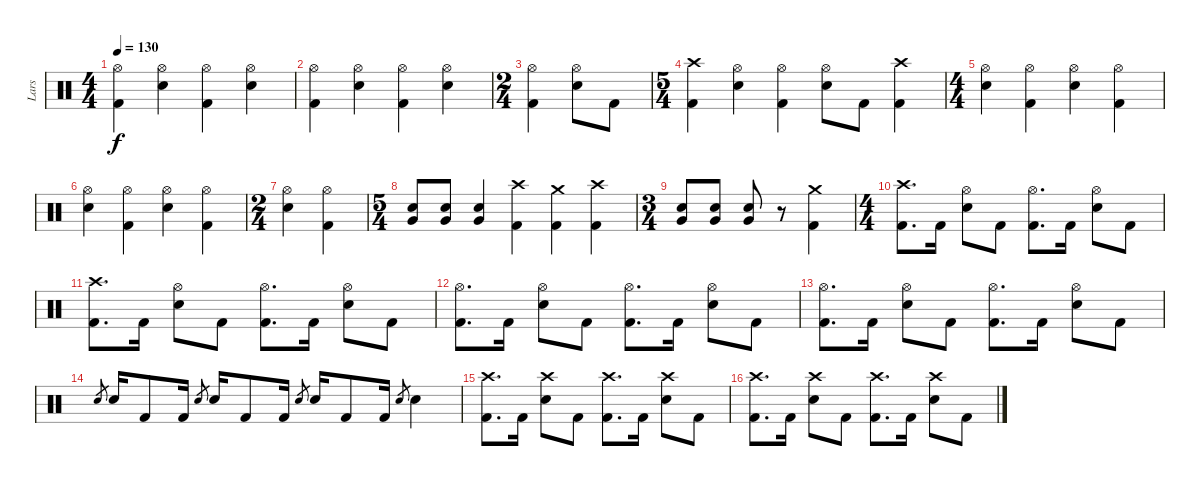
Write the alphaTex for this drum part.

\track ("Lars" "Lars") {instrument percussion}
\staff {score}
\articulation defaults
\ts (4 4)
\tempo 130
\clef neutral
\ks c
("Kick (hit) 2" "Hi-Hat (open)").4{dy f} ("Electric Snare (hit)" "Hi-Hat (open)").4 ("Kick (hit) 2" "Hi-Hat (open)").4 ("Electric Snare (hit)" "Hi-Hat (open)").4 |
("Kick (hit) 2" "Hi-Hat (open)").4 ("Electric Snare (hit)" "Hi-Hat (open)").4 ("Kick (hit) 2" "Hi-Hat (open)").4 ("Electric Snare (hit)" "Hi-Hat (open)").4 |
\ts (2 4)
("Kick (hit) 2" "Hi-Hat (open)").4 ("Electric Snare (hit)" "Hi-Hat (open)").8 "Kick (hit) 2".8 |
\ts (5 4)
("Kick (hit) 2" "Crash high (hit)").4 ("Electric Snare (hit)" "Hi-Hat (open)").4 ("Kick (hit) 2" "Hi-Hat (open)").4 ("Electric Snare (hit)" "Hi-Hat (open)").8 "Kick (hit) 2".8 ("Kick (hit) 2" "Crash high (hit)").4 |
\ts (4 4)
("Electric Snare (hit)" "Hi-Hat (open)").4 ("Kick (hit) 2" "Hi-Hat (open)").4 ("Electric Snare (hit)" "Hi-Hat (open)").4 ("Kick (hit) 2" "Hi-Hat (open)").4 |
("Electric Snare (hit)" "Hi-Hat (open)").4 ("Kick (hit) 2" "Hi-Hat (open)").4 ("Electric Snare (hit)" "Hi-Hat (open)").4 ("Kick (hit) 2" "Hi-Hat (open)").4 |
\ts (2 4)
("Electric Snare (hit)" "Hi-Hat (open)").4 ("Kick (hit) 2" "Hi-Hat (open)").4 |
\ts (5 4)
\section ("" "")
("Electric Snare (hit)" "Very Low Tom (hit)").8{bu 120} ("Electric Snare (hit)" "Very Low Tom (hit)").8{bu 120} ("Electric Snare (hit)" "Very Low Tom (hit)").4 ("Kick (hit) 2" "Crash high (hit)").4 ("Kick (hit) 2" "Crash medium (hit)").4 ("Kick (hit) 2" "Crash high (hit)").4 |
\ts (3 4)
("Electric Snare (hit)" "Very Low Tom (hit)").8{bu 120} ("Electric Snare (hit)" "Very Low Tom (hit)").8{bu 120} ("Electric Snare (hit)" "Very Low Tom (hit)").8{bu 120} r.8 ("Kick (hit) 2" "Crash medium (hit)").4 |
\ts (4 4)
\section ("" "")
("Kick (hit) 2" "Crash high (hit)").8{d} "Kick (hit) 2".16 ("Electric Snare (hit)" "Hi-Hat (open)").8 "Kick (hit) 2".8 ("Kick (hit) 2" "Hi-Hat (open)").8{d} "Kick (hit) 2".16 ("Electric Snare (hit)" "Hi-Hat (open)").8 "Kick (hit) 2".8 |
\section ("" "")
("Kick (hit) 2" "Crash high (hit)").8{d} "Kick (hit) 2".16 ("Electric Snare (hit)" "Hi-Hat (open)").8 "Kick (hit) 2".8 ("Kick (hit) 2" "Hi-Hat (open)").8{d} "Kick (hit) 2".16 ("Electric Snare (hit)" "Hi-Hat (open)").8 "Kick (hit) 2".8 |
("Kick (hit) 2" "Hi-Hat (open)").8{d} "Kick (hit) 2".16 ("Electric Snare (hit)" "Hi-Hat (open)").8 "Kick (hit) 2".8 ("Kick (hit) 2" "Hi-Hat (open)").8{d} "Kick (hit) 2".16 ("Electric Snare (hit)" "Hi-Hat (open)").8 "Kick (hit) 2".8 |
("Kick (hit) 2" "Hi-Hat (open)").8{d} "Kick (hit) 2".16 ("Electric Snare (hit)" "Hi-Hat (open)").8 "Kick (hit) 2".8 ("Kick (hit) 2" "Hi-Hat (open)").8{d} "Kick (hit) 2".16 ("Electric Snare (hit)" "Hi-Hat (open)").8 "Kick (hit) 2".8 |
"Electric Snare (hit)".8{gr} "Electric Snare (hit)".16 "Kick (hit) 2".8 "Kick (hit) 2".16 "Electric Snare (hit)".8{gr} "Electric Snare (hit)".16 "Kick (hit) 2".8 "Kick (hit) 2".16 "Electric Snare (hit)".8{gr} "Electric Snare (hit)".16 "Kick (hit) 2".8 "Kick (hit) 2".16 "Electric Snare (hit)".8{gr} "Electric Snare (hit)".4 |
("Kick (hit) 2" "Crash high (hit)").8{d} "Kick (hit) 2".16 ("Electric Snare (hit)" "Crash high (hit)").8 "Kick (hit) 2".8 ("Kick (hit) 2" "Crash high (hit)").8{d} "Kick (hit) 2".16 ("Electric Snare (hit)" "Crash high (hit)").8 "Kick (hit) 2".8 |
("Kick (hit) 2" "Crash high (hit)").8{d} "Kick (hit) 2".16 ("Electric Snare (hit)" "Crash high (hit)").8 "Kick (hit) 2".8 ("Kick (hit) 2" "Crash high (hit)").8{d} "Kick (hit) 2".16 ("Electric Snare (hit)" "Crash high (hit)").8 "Kick (hit) 2".8
